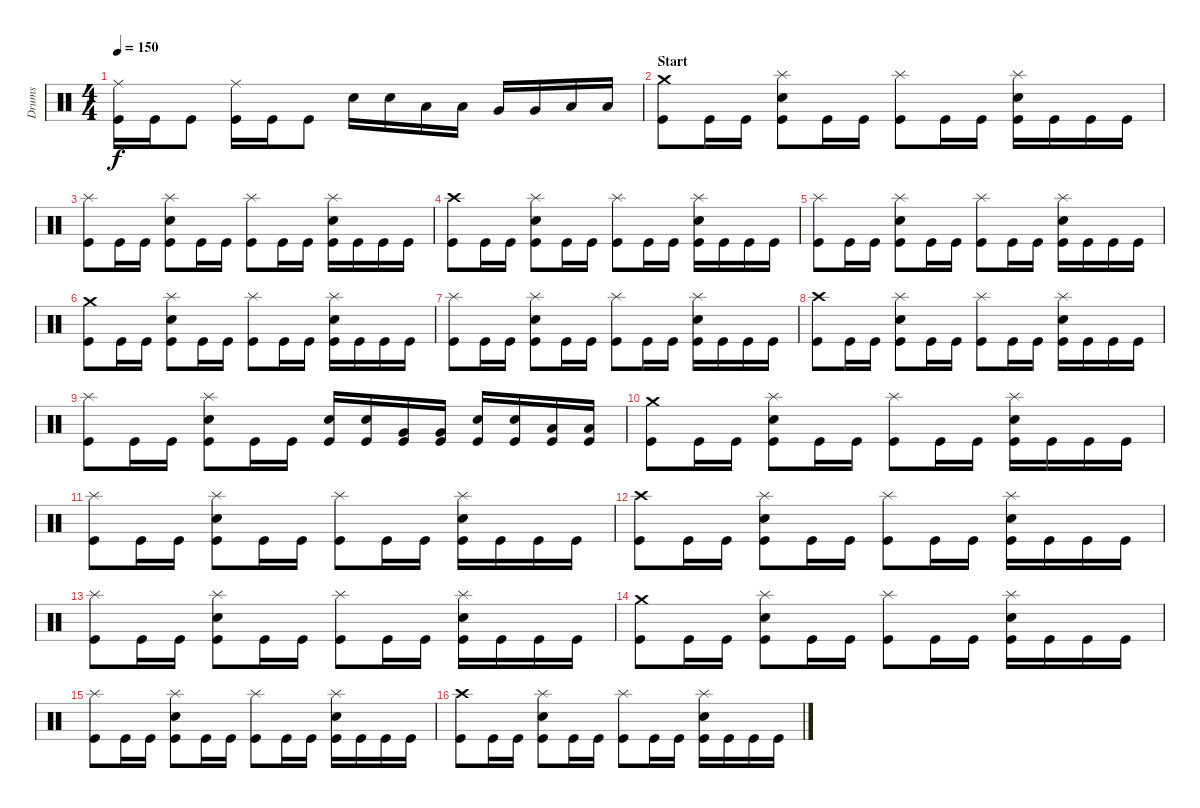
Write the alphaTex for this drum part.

\track ("Drums" "Drums") {instrument percussion}
\staff {score}
\articulation defaults
\ts (4 4)
\tempo 150
\clef neutral
\ks c
("Ride (middle)" "Kick (hit)").16{dy f} "Kick (hit)".16 "Kick (hit)".8 ("Ride (middle)" "Kick (hit)").16 "Kick (hit)".16 "Kick (hit)".8 "Electric Snare (hit)".16 "Electric Snare (hit)".16 "Low Tom (hit)".16 "Low Tom (hit)".16 "Very Low Tom (hit)".16 "Very Low Tom (hit)".16 "Low Floor Tom (hit)".16 "Low Floor Tom (hit)".16 |
\section ("" "Start")
("Crash medium (hit)" "Kick (hit)").8 "Kick (hit)".16 "Kick (hit)".16 ("Splash (hit)" "Electric Snare (hit)" "Kick (hit)").8 "Kick (hit)".16 "Kick (hit)".16 ("Splash (hit)" "Kick (hit)").8 "Kick (hit)".16 "Kick (hit)".16 ("Splash (hit)" "Electric Snare (hit)" "Kick (hit)").16 "Kick (hit)".16 "Kick (hit)".16 "Kick (hit)".16 |
("Splash (hit)" "Kick (hit)").8 "Kick (hit)".16 "Kick (hit)".16 ("Splash (hit)" "Electric Snare (hit)" "Kick (hit)").8 "Kick (hit)".16 "Kick (hit)".16 ("Splash (hit)" "Kick (hit)").8 "Kick (hit)".16 "Kick (hit)".16 ("Splash (hit)" "Electric Snare (hit)" "Kick (hit)").16 "Kick (hit)".16 "Kick (hit)".16 "Kick (hit)".16 |
("Crash high (hit)" "Kick (hit)").8 "Kick (hit)".16 "Kick (hit)".16 ("Splash (hit)" "Electric Snare (hit)" "Kick (hit)").8 "Kick (hit)".16 "Kick (hit)".16 ("Splash (hit)" "Kick (hit)").8 "Kick (hit)".16 "Kick (hit)".16 ("Splash (hit)" "Electric Snare (hit)" "Kick (hit)").16 "Kick (hit)".16 "Kick (hit)".16 "Kick (hit)".16 |
("Splash (hit)" "Kick (hit)").8 "Kick (hit)".16 "Kick (hit)".16 ("Splash (hit)" "Electric Snare (hit)" "Kick (hit)").8 "Kick (hit)".16 "Kick (hit)".16 ("Splash (hit)" "Kick (hit)").8 "Kick (hit)".16 "Kick (hit)".16 ("Splash (hit)" "Electric Snare (hit)" "Kick (hit)").16 "Kick (hit)".16 "Kick (hit)".16 "Kick (hit)".16 |
("Crash medium (hit)" "Kick (hit)").8 "Kick (hit)".16 "Kick (hit)".16 ("Splash (hit)" "Electric Snare (hit)" "Kick (hit)").8 "Kick (hit)".16 "Kick (hit)".16 ("Splash (hit)" "Kick (hit)").8 "Kick (hit)".16 "Kick (hit)".16 ("Splash (hit)" "Electric Snare (hit)" "Kick (hit)").16 "Kick (hit)".16 "Kick (hit)".16 "Kick (hit)".16 |
("Splash (hit)" "Kick (hit)").8 "Kick (hit)".16 "Kick (hit)".16 ("Splash (hit)" "Electric Snare (hit)" "Kick (hit)").8 "Kick (hit)".16 "Kick (hit)".16 ("Splash (hit)" "Kick (hit)").8 "Kick (hit)".16 "Kick (hit)".16 ("Splash (hit)" "Electric Snare (hit)" "Kick (hit)").16 "Kick (hit)".16 "Kick (hit)".16 "Kick (hit)".16 |
("Crash high (hit)" "Kick (hit)").8 "Kick (hit)".16 "Kick (hit)".16 ("Splash (hit)" "Electric Snare (hit)" "Kick (hit)").8 "Kick (hit)".16 "Kick (hit)".16 ("Splash (hit)" "Kick (hit)").8 "Kick (hit)".16 "Kick (hit)".16 ("Splash (hit)" "Electric Snare (hit)" "Kick (hit)").16 "Kick (hit)".16 "Kick (hit)".16 "Kick (hit)".16 |
("Splash (hit)" "Kick (hit)").8 "Kick (hit)".16 "Kick (hit)".16 ("Splash (hit)" "Electric Snare (hit)" "Kick (hit)").8 "Kick (hit)".16 "Kick (hit)".16 ("Electric Snare (hit)" "Kick (hit)").16 ("Electric Snare (hit)" "Kick (hit)").16 ("Very Low Tom (hit)" "Kick (hit)").16 ("Very Low Tom (hit)" "Kick (hit)").16 ("Electric Snare (hit)" "Kick (hit)").16 ("Electric Snare (hit)" "Kick (hit)").16 ("Low Floor Tom (hit)" "Kick (hit)").16 ("Low Floor Tom (hit)" "Kick (hit)").16 |
("Crash medium (hit)" "Kick (hit)").8 "Kick (hit)".16 "Kick (hit)".16 ("Splash (hit)" "Electric Snare (hit)" "Kick (hit)").8 "Kick (hit)".16 "Kick (hit)".16 ("Splash (hit)" "Kick (hit)").8 "Kick (hit)".16 "Kick (hit)".16 ("Splash (hit)" "Electric Snare (hit)" "Kick (hit)").16 "Kick (hit)".16 "Kick (hit)".16 "Kick (hit)".16 |
("Splash (hit)" "Kick (hit)").8 "Kick (hit)".16 "Kick (hit)".16 ("Splash (hit)" "Electric Snare (hit)" "Kick (hit)").8 "Kick (hit)".16 "Kick (hit)".16 ("Splash (hit)" "Kick (hit)").8 "Kick (hit)".16 "Kick (hit)".16 ("Splash (hit)" "Electric Snare (hit)" "Kick (hit)").16 "Kick (hit)".16 "Kick (hit)".16 "Kick (hit)".16 |
("Crash high (hit)" "Kick (hit)").8 "Kick (hit)".16 "Kick (hit)".16 ("Splash (hit)" "Electric Snare (hit)" "Kick (hit)").8 "Kick (hit)".16 "Kick (hit)".16 ("Splash (hit)" "Kick (hit)").8 "Kick (hit)".16 "Kick (hit)".16 ("Splash (hit)" "Electric Snare (hit)" "Kick (hit)").16 "Kick (hit)".16 "Kick (hit)".16 "Kick (hit)".16 |
("Splash (hit)" "Kick (hit)").8 "Kick (hit)".16 "Kick (hit)".16 ("Splash (hit)" "Electric Snare (hit)" "Kick (hit)").8 "Kick (hit)".16 "Kick (hit)".16 ("Splash (hit)" "Kick (hit)").8 "Kick (hit)".16 "Kick (hit)".16 ("Splash (hit)" "Electric Snare (hit)" "Kick (hit)").16 "Kick (hit)".16 "Kick (hit)".16 "Kick (hit)".16 |
("Crash medium (hit)" "Kick (hit)").8 "Kick (hit)".16 "Kick (hit)".16 ("Splash (hit)" "Electric Snare (hit)" "Kick (hit)").8 "Kick (hit)".16 "Kick (hit)".16 ("Splash (hit)" "Kick (hit)").8 "Kick (hit)".16 "Kick (hit)".16 ("Splash (hit)" "Electric Snare (hit)" "Kick (hit)").16 "Kick (hit)".16 "Kick (hit)".16 "Kick (hit)".16 |
("Splash (hit)" "Kick (hit)").8 "Kick (hit)".16 "Kick (hit)".16 ("Splash (hit)" "Electric Snare (hit)" "Kick (hit)").8 "Kick (hit)".16 "Kick (hit)".16 ("Splash (hit)" "Kick (hit)").8 "Kick (hit)".16 "Kick (hit)".16 ("Splash (hit)" "Electric Snare (hit)" "Kick (hit)").16 "Kick (hit)".16 "Kick (hit)".16 "Kick (hit)".16 |
("Crash high (hit)" "Kick (hit)").8 "Kick (hit)".16 "Kick (hit)".16 ("Splash (hit)" "Electric Snare (hit)" "Kick (hit)").8 "Kick (hit)".16 "Kick (hit)".16 ("Splash (hit)" "Kick (hit)").8 "Kick (hit)".16 "Kick (hit)".16 ("Splash (hit)" "Electric Snare (hit)" "Kick (hit)").16 "Kick (hit)".16 "Kick (hit)".16 "Kick (hit)".16
